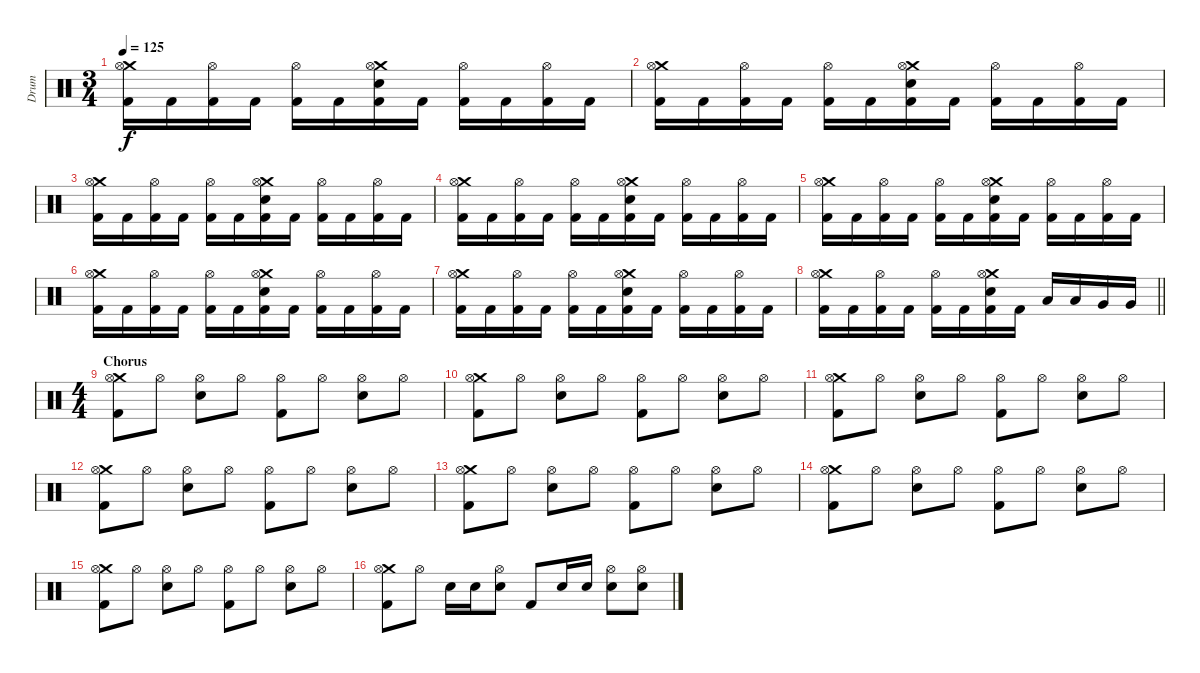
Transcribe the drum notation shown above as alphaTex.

\track ("Drum" "Drum") {instrument percussion}
\staff {score}
\articulation defaults
\ts (3 4)
\tempo 125
\clef neutral
\ks c
("Crash medium (hit)" "Hi-Hat (open)" "Kick (hit) 2").16{dy f} "Kick (hit) 2".16 ("Hi-Hat (open)" "Kick (hit) 2").16 "Kick (hit) 2".16 ("Hi-Hat (open)" "Kick (hit) 2").16 "Kick (hit) 2".16 ("Crash medium (hit)" "Hi-Hat (open)" "Electric Snare (hit)" "Kick (hit) 2").16 "Kick (hit) 2".16 ("Hi-Hat (open)" "Kick (hit) 2").16 "Kick (hit) 2".16 ("Hi-Hat (open)" "Kick (hit) 2").16 "Kick (hit) 2".16 |
("Crash medium (hit)" "Hi-Hat (open)" "Kick (hit) 2").16 "Kick (hit) 2".16 ("Hi-Hat (open)" "Kick (hit) 2").16 "Kick (hit) 2".16 ("Hi-Hat (open)" "Kick (hit) 2").16 "Kick (hit) 2".16 ("Crash medium (hit)" "Hi-Hat (open)" "Electric Snare (hit)" "Kick (hit) 2").16 "Kick (hit) 2".16 ("Hi-Hat (open)" "Kick (hit) 2").16 "Kick (hit) 2".16 ("Hi-Hat (open)" "Kick (hit) 2").16 "Kick (hit) 2".16 |
("Crash medium (hit)" "Hi-Hat (open)" "Kick (hit) 2").16 "Kick (hit) 2".16 ("Hi-Hat (open)" "Kick (hit) 2").16 "Kick (hit) 2".16 ("Hi-Hat (open)" "Kick (hit) 2").16 "Kick (hit) 2".16 ("Crash medium (hit)" "Hi-Hat (open)" "Electric Snare (hit)" "Kick (hit) 2").16 "Kick (hit) 2".16 ("Hi-Hat (open)" "Kick (hit) 2").16 "Kick (hit) 2".16 ("Hi-Hat (open)" "Kick (hit) 2").16 "Kick (hit) 2".16 |
("Crash medium (hit)" "Hi-Hat (open)" "Kick (hit) 2").16 "Kick (hit) 2".16 ("Hi-Hat (open)" "Kick (hit) 2").16 "Kick (hit) 2".16 ("Hi-Hat (open)" "Kick (hit) 2").16 "Kick (hit) 2".16 ("Crash medium (hit)" "Hi-Hat (open)" "Electric Snare (hit)" "Kick (hit) 2").16 "Kick (hit) 2".16 ("Hi-Hat (open)" "Kick (hit) 2").16 "Kick (hit) 2".16 ("Hi-Hat (open)" "Kick (hit) 2").16 "Kick (hit) 2".16 |
("Crash medium (hit)" "Hi-Hat (open)" "Kick (hit) 2").16 "Kick (hit) 2".16 ("Hi-Hat (open)" "Kick (hit) 2").16 "Kick (hit) 2".16 ("Hi-Hat (open)" "Kick (hit) 2").16 "Kick (hit) 2".16 ("Crash medium (hit)" "Hi-Hat (open)" "Electric Snare (hit)" "Kick (hit) 2").16 "Kick (hit) 2".16 ("Hi-Hat (open)" "Kick (hit) 2").16 "Kick (hit) 2".16 ("Hi-Hat (open)" "Kick (hit) 2").16 "Kick (hit) 2".16 |
("Crash medium (hit)" "Hi-Hat (open)" "Kick (hit) 2").16 "Kick (hit) 2".16 ("Hi-Hat (open)" "Kick (hit) 2").16 "Kick (hit) 2".16 ("Hi-Hat (open)" "Kick (hit) 2").16 "Kick (hit) 2".16 ("Crash medium (hit)" "Hi-Hat (open)" "Electric Snare (hit)" "Kick (hit) 2").16 "Kick (hit) 2".16 ("Hi-Hat (open)" "Kick (hit) 2").16 "Kick (hit) 2".16 ("Hi-Hat (open)" "Kick (hit) 2").16 "Kick (hit) 2".16 |
("Crash medium (hit)" "Hi-Hat (open)" "Kick (hit) 2").16 "Kick (hit) 2".16 ("Hi-Hat (open)" "Kick (hit) 2").16 "Kick (hit) 2".16 ("Hi-Hat (open)" "Kick (hit) 2").16 "Kick (hit) 2".16 ("Crash medium (hit)" "Hi-Hat (open)" "Electric Snare (hit)" "Kick (hit) 2").16 "Kick (hit) 2".16 ("Hi-Hat (open)" "Kick (hit) 2").16 "Kick (hit) 2".16 ("Hi-Hat (open)" "Kick (hit) 2").16 "Kick (hit) 2".16 |
\barLineRight lightlight
("Crash medium (hit)" "Hi-Hat (open)" "Kick (hit) 2").16 "Kick (hit) 2".16 ("Hi-Hat (open)" "Kick (hit) 2").16 "Kick (hit) 2".16 ("Hi-Hat (open)" "Kick (hit) 2").16 "Kick (hit) 2".16 ("Crash medium (hit)" "Hi-Hat (open)" "Electric Snare (hit)" "Kick (hit) 2").16 "Kick (hit) 2".16 "Low Tom (hit)".16 "Low Tom (hit)".16 "Very Low Tom (hit)".16 "Very Low Tom (hit)".16 |
\ts (4 4)
\section ("" "Chorus")
("Crash medium (hit)" "Hi-Hat (open)" "Kick (hit) 2").8 "Hi-Hat (open)".8 ("Hi-Hat (open)" "Electric Snare (hit)").8 "Hi-Hat (open)".8 ("Hi-Hat (open)" "Kick (hit) 2").8 "Hi-Hat (open)".8 ("Hi-Hat (open)" "Electric Snare (hit)").8 "Hi-Hat (open)".8 |
("Crash medium (hit)" "Hi-Hat (open)" "Kick (hit) 2").8 "Hi-Hat (open)".8 ("Hi-Hat (open)" "Electric Snare (hit)").8 "Hi-Hat (open)".8 ("Hi-Hat (open)" "Kick (hit) 2").8 "Hi-Hat (open)".8 ("Hi-Hat (open)" "Electric Snare (hit)").8 "Hi-Hat (open)".8 |
("Crash medium (hit)" "Hi-Hat (open)" "Kick (hit) 2").8 "Hi-Hat (open)".8 ("Hi-Hat (open)" "Electric Snare (hit)").8 "Hi-Hat (open)".8 ("Hi-Hat (open)" "Kick (hit) 2").8 "Hi-Hat (open)".8 ("Hi-Hat (open)" "Electric Snare (hit)").8 "Hi-Hat (open)".8 |
("Crash medium (hit)" "Hi-Hat (open)" "Kick (hit) 2").8 "Hi-Hat (open)".8 ("Hi-Hat (open)" "Electric Snare (hit)").8 "Hi-Hat (open)".8 ("Hi-Hat (open)" "Kick (hit) 2").8 "Hi-Hat (open)".8 ("Hi-Hat (open)" "Electric Snare (hit)").8 "Hi-Hat (open)".8 |
("Crash medium (hit)" "Hi-Hat (open)" "Kick (hit) 2").8 "Hi-Hat (open)".8 ("Hi-Hat (open)" "Electric Snare (hit)").8 "Hi-Hat (open)".8 ("Hi-Hat (open)" "Kick (hit) 2").8 "Hi-Hat (open)".8 ("Hi-Hat (open)" "Electric Snare (hit)").8 "Hi-Hat (open)".8 |
("Crash medium (hit)" "Hi-Hat (open)" "Kick (hit) 2").8 "Hi-Hat (open)".8 ("Hi-Hat (open)" "Electric Snare (hit)").8 "Hi-Hat (open)".8 ("Hi-Hat (open)" "Kick (hit) 2").8 "Hi-Hat (open)".8 ("Hi-Hat (open)" "Electric Snare (hit)").8 "Hi-Hat (open)".8 |
("Crash medium (hit)" "Hi-Hat (open)" "Kick (hit) 2").8 "Hi-Hat (open)".8 ("Hi-Hat (open)" "Electric Snare (hit)").8 "Hi-Hat (open)".8 ("Hi-Hat (open)" "Kick (hit) 2").8 "Hi-Hat (open)".8 ("Hi-Hat (open)" "Electric Snare (hit)").8 "Hi-Hat (open)".8 |
("Crash medium (hit)" "Hi-Hat (open)" "Kick (hit) 2").8 "Hi-Hat (open)".8 "Electric Snare (hit)".16 "Electric Snare (hit)".16 ("Hi-Hat (open)" "Electric Snare (hit)").8 "Kick (hit) 2".8 "Electric Snare (hit)".16 "Electric Snare (hit)".16 ("Hi-Hat (open)" "Electric Snare (hit)").8 ("Hi-Hat (open)" "Electric Snare (hit)").8
